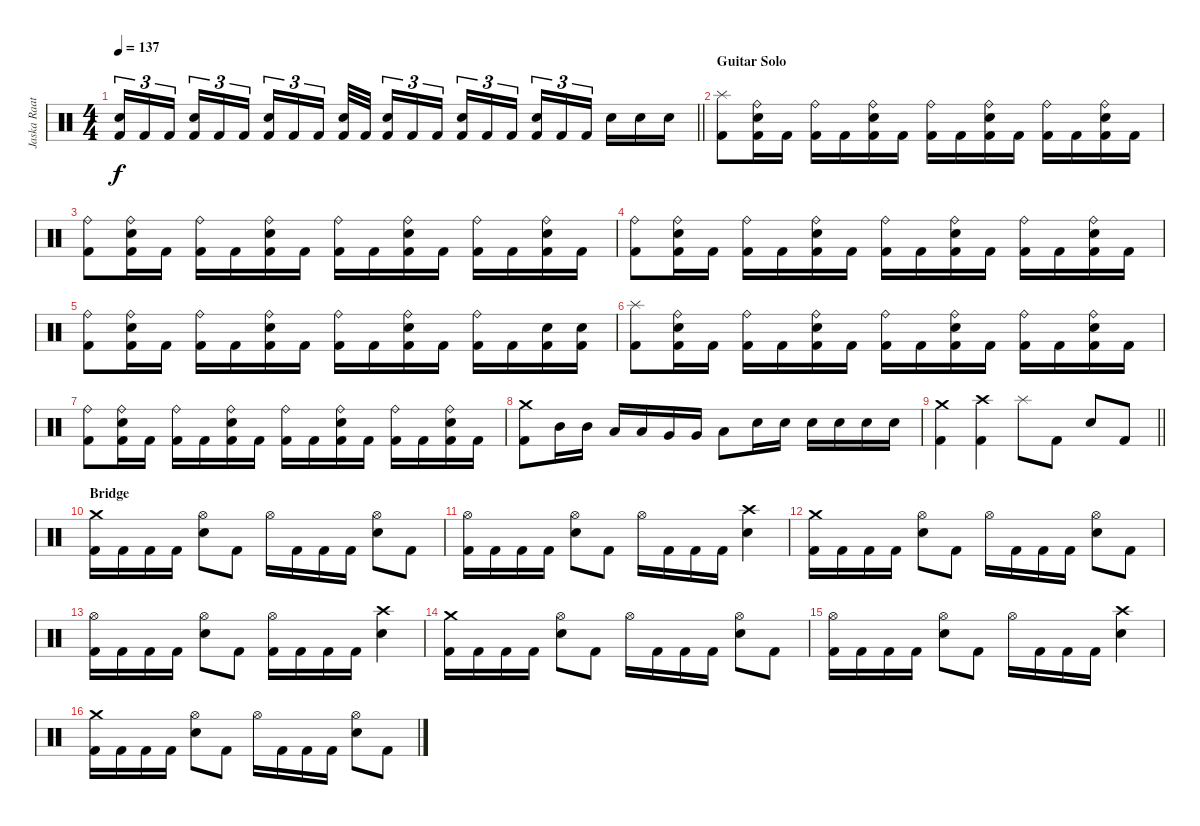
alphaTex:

\track ("Jaska Raatikainen" "Jaska Raat") {instrument percussion}
\staff {score}
\articulation defaults
\ts (4 4)
\tempo 137
\clef neutral
\barLineRight lightlight
\ks c
("Electric Snare (hit)" "Kick (hit) 2").16{tu (3 2) dy f} "Kick (hit) 2".16{tu (3 2)} "Kick (hit) 2".16{tu (3 2)} ("Electric Snare (hit)" "Kick (hit) 2").16{tu (3 2)} "Kick (hit) 2".16{tu (3 2)} "Kick (hit) 2".16{tu (3 2)} ("Electric Snare (hit)" "Kick (hit) 2").16{tu (3 2)} "Kick (hit) 2".16{tu (3 2)} "Kick (hit) 2".16{tu (3 2)} ("Electric Snare (hit)" "Kick (hit) 2").32 "Kick (hit) 2".32 ("Electric Snare (hit)" "Kick (hit) 2").16{tu (3 2)} "Kick (hit) 2".16{tu (3 2)} "Kick (hit) 2".16{tu (3 2)} ("Electric Snare (hit)" "Kick (hit) 2").16{tu (3 2)} "Kick (hit) 2".16{tu (3 2)} "Kick (hit) 2".16{tu (3 2)} ("Electric Snare (hit)" "Kick (hit) 2").16{tu (3 2)} "Kick (hit) 2".16{tu (3 2)} "Kick (hit) 2".16{tu (3 2)} "Electric Snare (hit)".16 "Electric Snare (hit)".16 "Electric Snare (hit)".16 |
\section ("" "Guitar Solo")
("Splash (hit)" "Kick (hit) 2").8 ("Ride (bell)" "Electric Snare (hit)" "Kick (hit) 2").16 "Kick (hit) 2".16 ("Ride (bell)" "Kick (hit) 2").16 "Kick (hit) 2".16 ("Ride (bell)" "Electric Snare (hit)" "Kick (hit) 2").16 "Kick (hit) 2".16 ("Ride (bell)" "Kick (hit) 2").16 "Kick (hit) 2".16 ("Ride (bell)" "Electric Snare (hit)" "Kick (hit) 2").16 "Kick (hit) 2".16 ("Ride (bell)" "Kick (hit) 2").16 "Kick (hit) 2".16 ("Ride (bell)" "Electric Snare (hit)" "Kick (hit) 2").16 "Kick (hit) 2".16 |
("Ride (bell)" "Kick (hit) 2").8 ("Ride (bell)" "Electric Snare (hit)" "Kick (hit) 2").16 "Kick (hit) 2".16 ("Ride (bell)" "Kick (hit) 2").16 "Kick (hit) 2".16 ("Ride (bell)" "Electric Snare (hit)" "Kick (hit) 2").16 "Kick (hit) 2".16 ("Ride (bell)" "Kick (hit) 2").16 "Kick (hit) 2".16 ("Ride (bell)" "Electric Snare (hit)" "Kick (hit) 2").16 "Kick (hit) 2".16 ("Ride (bell)" "Kick (hit) 2").16 "Kick (hit) 2".16 ("Ride (bell)" "Electric Snare (hit)" "Kick (hit) 2").16 "Kick (hit) 2".16 |
("Ride (bell)" "Kick (hit) 2").8 ("Ride (bell)" "Electric Snare (hit)" "Kick (hit) 2").16 "Kick (hit) 2".16 ("Ride (bell)" "Kick (hit) 2").16 "Kick (hit) 2".16 ("Ride (bell)" "Electric Snare (hit)" "Kick (hit) 2").16 "Kick (hit) 2".16 ("Ride (bell)" "Kick (hit) 2").16 "Kick (hit) 2".16 ("Ride (bell)" "Electric Snare (hit)" "Kick (hit) 2").16 "Kick (hit) 2".16 ("Ride (bell)" "Kick (hit) 2").16 "Kick (hit) 2".16 ("Ride (bell)" "Electric Snare (hit)" "Kick (hit) 2").16 "Kick (hit) 2".16 |
("Ride (bell)" "Kick (hit) 2").8 ("Ride (bell)" "Electric Snare (hit)" "Kick (hit) 2").16 "Kick (hit) 2".16 ("Ride (bell)" "Kick (hit) 2").16 "Kick (hit) 2".16 ("Ride (bell)" "Electric Snare (hit)" "Kick (hit) 2").16 "Kick (hit) 2".16 ("Ride (bell)" "Kick (hit) 2").16 "Kick (hit) 2".16 ("Ride (bell)" "Electric Snare (hit)" "Kick (hit) 2").16 "Kick (hit) 2".16 ("Ride (bell)" "Kick (hit) 2").16 "Kick (hit) 2".16 ("Electric Snare (hit)" "Kick (hit) 2").16 ("Electric Snare (hit)" "Kick (hit) 2").16 |
("Splash (hit)" "Kick (hit) 2").8 ("Ride (bell)" "Electric Snare (hit)" "Kick (hit) 2").16 "Kick (hit) 2".16 ("Ride (bell)" "Kick (hit) 2").16 "Kick (hit) 2".16 ("Ride (bell)" "Electric Snare (hit)" "Kick (hit) 2").16 "Kick (hit) 2".16 ("Ride (bell)" "Kick (hit) 2").16 "Kick (hit) 2".16 ("Ride (bell)" "Electric Snare (hit)" "Kick (hit) 2").16 "Kick (hit) 2".16 ("Ride (bell)" "Kick (hit) 2").16 "Kick (hit) 2".16 ("Ride (bell)" "Electric Snare (hit)" "Kick (hit) 2").16 "Kick (hit) 2".16 |
("Ride (bell)" "Kick (hit) 2").8 ("Ride (bell)" "Electric Snare (hit)" "Kick (hit) 2").16 "Kick (hit) 2".16 ("Ride (bell)" "Kick (hit) 2").16 "Kick (hit) 2".16 ("Ride (bell)" "Electric Snare (hit)" "Kick (hit) 2").16 "Kick (hit) 2".16 ("Ride (bell)" "Kick (hit) 2").16 "Kick (hit) 2".16 ("Ride (bell)" "Electric Snare (hit)" "Kick (hit) 2").16 "Kick (hit) 2".16 ("Ride (bell)" "Kick (hit) 2").16 "Kick (hit) 2".16 ("Ride (bell)" "Electric Snare (hit)" "Kick (hit) 2").16 "Kick (hit) 2".16 |
("Crash medium (hit)" "Kick (hit) 2").8 "Mid Tom (hit)".16 "Mid Tom (hit)".16 "Low Tom (hit)".16 "Low Tom (hit)".16 "Very Low Tom (hit)".16 "Very Low Tom (hit)".16 "Low Floor Tom (hit)".8 "Electric Snare (hit)".16 "Electric Snare (hit)".16 "Electric Snare (hit)".16 "Electric Snare (hit)".16 "Electric Snare (hit)".16 "Electric Snare (hit)".16 |
\barLineRight lightlight
("Crash medium (hit)" "Kick (hit) 2").4 ("Crash high (hit)" "Kick (hit) 2").4 "Splash (hit)".8 "Kick (hit) 2".8 "Electric Snare (hit)".8 "Kick (hit) 2".8 |
\section ("" "Bridge")
("Crash medium (hit)" "Kick (hit) 2").16 "Kick (hit) 2".16 "Kick (hit) 2".16 "Kick (hit) 2".16 ("Hi-Hat (open)" "Electric Snare (hit)").8 "Kick (hit) 2".8 "Hi-Hat (open)".16 "Kick (hit) 2".16 "Kick (hit) 2".16 "Kick (hit) 2".16 ("Hi-Hat (open)" "Electric Snare (hit)").8 "Kick (hit) 2".8 |
("Hi-Hat (open)" "Kick (hit) 2").16 "Kick (hit) 2".16 "Kick (hit) 2".16 "Kick (hit) 2".16 ("Hi-Hat (open)" "Electric Snare (hit)").8 "Kick (hit) 2".8 "Hi-Hat (open)".16 "Kick (hit) 2".16 "Kick (hit) 2".16 "Kick (hit) 2".16 ("Crash high (hit)" "Electric Snare (hit)").4 |
("Crash medium (hit)" "Kick (hit) 2").16 "Kick (hit) 2".16 "Kick (hit) 2".16 "Kick (hit) 2".16 ("Hi-Hat (open)" "Electric Snare (hit)").8 "Kick (hit) 2".8 "Hi-Hat (open)".16 "Kick (hit) 2".16 "Kick (hit) 2".16 "Kick (hit) 2".16 ("Hi-Hat (open)" "Electric Snare (hit)").8 "Kick (hit) 2".8 |
("Hi-Hat (open)" "Kick (hit) 2").16 "Kick (hit) 2".16 "Kick (hit) 2".16 "Kick (hit) 2".16 ("Hi-Hat (open)" "Electric Snare (hit)").8 "Kick (hit) 2".8 ("Hi-Hat (open)" "Kick (hit) 2").16 "Kick (hit) 2".16 "Kick (hit) 2".16 "Kick (hit) 2".16 ("Crash high (hit)" "Electric Snare (hit)").4 |
("Crash medium (hit)" "Kick (hit) 2").16 "Kick (hit) 2".16 "Kick (hit) 2".16 "Kick (hit) 2".16 ("Hi-Hat (open)" "Electric Snare (hit)").8 "Kick (hit) 2".8 "Hi-Hat (open)".16 "Kick (hit) 2".16 "Kick (hit) 2".16 "Kick (hit) 2".16 ("Hi-Hat (open)" "Electric Snare (hit)").8 "Kick (hit) 2".8 |
("Hi-Hat (open)" "Kick (hit) 2").16 "Kick (hit) 2".16 "Kick (hit) 2".16 "Kick (hit) 2".16 ("Hi-Hat (open)" "Electric Snare (hit)").8 "Kick (hit) 2".8 "Hi-Hat (open)".16 "Kick (hit) 2".16 "Kick (hit) 2".16 "Kick (hit) 2".16 ("Crash high (hit)" "Electric Snare (hit)").4 |
("Crash medium (hit)" "Kick (hit) 2").16 "Kick (hit) 2".16 "Kick (hit) 2".16 "Kick (hit) 2".16 ("Hi-Hat (open)" "Electric Snare (hit)").8 "Kick (hit) 2".8 "Hi-Hat (open)".16 "Kick (hit) 2".16 "Kick (hit) 2".16 "Kick (hit) 2".16 ("Hi-Hat (open)" "Electric Snare (hit)").8 "Kick (hit) 2".8
